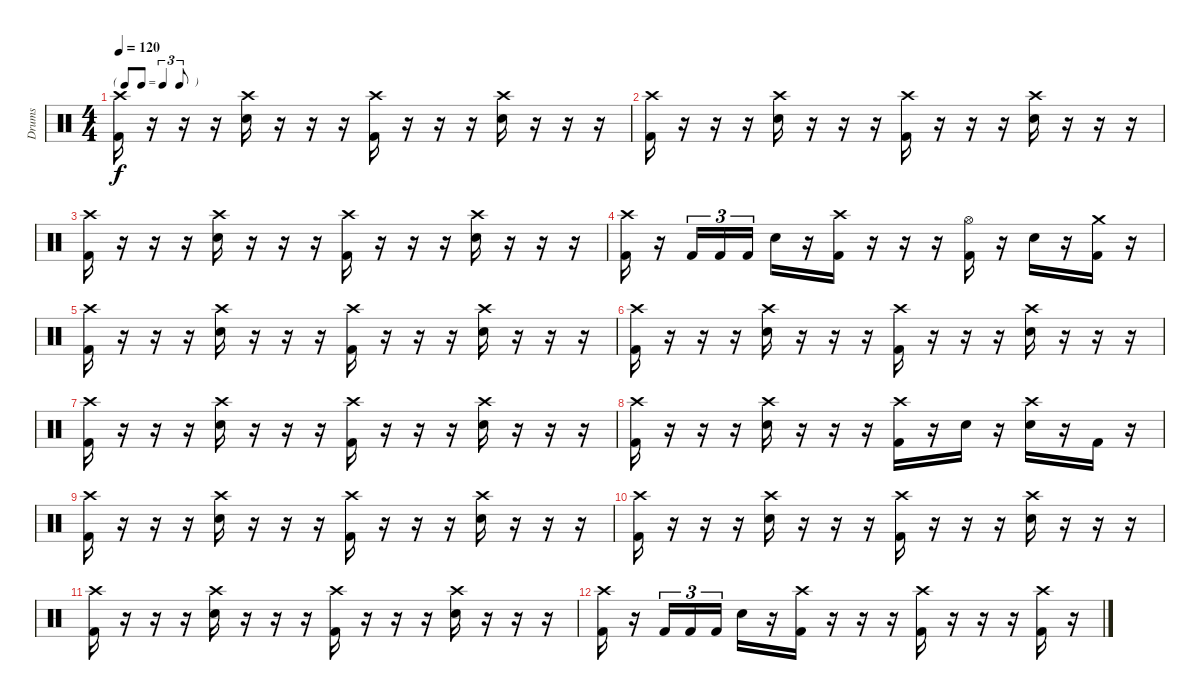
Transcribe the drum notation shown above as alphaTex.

\track ("Drums" "Drums") {instrument percussion}
\staff {score}
\articulation defaults
\ts (4 4)
\tf triplet8th
\tempo 120
\clef neutral
\ks c
("Crash high (hit)" "Kick (hit) 2").16{dy f} r.16 r.16 r.16 ("Crash high (hit)" "Electric Snare (hit)").16 r.16 r.16 r.16 ("Crash high (hit)" "Kick (hit) 2").16 r.16 r.16 r.16 ("Crash high (hit)" "Electric Snare (hit)").16 r.16 r.16 r.16 |
("Crash high (hit)" "Kick (hit) 2").16 r.16 r.16 r.16 ("Crash high (hit)" "Electric Snare (hit)").16 r.16 r.16 r.16 ("Crash high (hit)" "Kick (hit) 2").16 r.16 r.16 r.16 ("Crash high (hit)" "Electric Snare (hit)").16 r.16 r.16 r.16 |
("Crash high (hit)" "Kick (hit) 2").16 r.16 r.16 r.16 ("Crash high (hit)" "Electric Snare (hit)").16 r.16 r.16 r.16 ("Crash high (hit)" "Kick (hit) 2").16 r.16 r.16 r.16 ("Crash high (hit)" "Electric Snare (hit)").16 r.16 r.16 r.16 |
("Crash high (hit)" "Kick (hit) 2").16 r.16 "Kick (hit) 2".16{tu (3 2)} "Kick (hit) 2".16{tu (3 2)} "Kick (hit) 2".16{tu (3 2)} "Electric Snare (hit)".16 r.16 ("Crash high (hit)" "Kick (hit) 2").16 r.16 r.16 r.16 ("Hi-Hat (open)" "Kick (hit) 2").16 r.16 "Electric Snare (hit)".16 r.16 ("Crash medium (hit)" "Kick (hit) 2").16 r.16 |
("Crash high (hit)" "Kick (hit) 2").16 r.16 r.16 r.16 ("Crash high (hit)" "Electric Snare (hit)").16 r.16 r.16 r.16 ("Crash high (hit)" "Kick (hit) 2").16 r.16 r.16 r.16 ("Crash high (hit)" "Electric Snare (hit)").16 r.16 r.16 r.16 |
("Crash high (hit)" "Kick (hit) 2").16 r.16 r.16 r.16 ("Crash high (hit)" "Electric Snare (hit)").16 r.16 r.16 r.16 ("Crash high (hit)" "Kick (hit) 2").16 r.16 r.16 r.16 ("Crash high (hit)" "Electric Snare (hit)").16 r.16 r.16 r.16 |
("Crash high (hit)" "Kick (hit) 2").16 r.16 r.16 r.16 ("Crash high (hit)" "Electric Snare (hit)").16 r.16 r.16 r.16 ("Crash high (hit)" "Kick (hit) 2").16 r.16 r.16 r.16 ("Crash high (hit)" "Electric Snare (hit)").16 r.16 r.16 r.16 |
("Crash high (hit)" "Kick (hit) 2").16 r.16 r.16 r.16 ("Crash high (hit)" "Electric Snare (hit)").16 r.16 r.16 r.16 ("Crash high (hit)" "Kick (hit) 2").16 r.16 "Electric Snare (hit)".16 r.16 ("Crash high (hit)" "Electric Snare (hit)").16 r.16 "Kick (hit) 2".16 r.16 |
("Crash high (hit)" "Kick (hit) 2").16 r.16 r.16 r.16 ("Crash high (hit)" "Electric Snare (hit)").16 r.16 r.16 r.16 ("Crash high (hit)" "Kick (hit) 2").16 r.16 r.16 r.16 ("Crash high (hit)" "Electric Snare (hit)").16 r.16 r.16 r.16 |
("Crash high (hit)" "Kick (hit) 2").16 r.16 r.16 r.16 ("Crash high (hit)" "Electric Snare (hit)").16 r.16 r.16 r.16 ("Crash high (hit)" "Kick (hit) 2").16 r.16 r.16 r.16 ("Crash high (hit)" "Electric Snare (hit)").16 r.16 r.16 r.16 |
("Crash high (hit)" "Kick (hit) 2").16 r.16 r.16 r.16 ("Crash high (hit)" "Electric Snare (hit)").16 r.16 r.16 r.16 ("Crash high (hit)" "Kick (hit) 2").16 r.16 r.16 r.16 ("Crash high (hit)" "Electric Snare (hit)").16 r.16 r.16 r.16 |
("Crash high (hit)" "Kick (hit) 2").16 r.16 "Kick (hit) 2".16{tu (3 2)} "Kick (hit) 2".16{tu (3 2)} "Kick (hit) 2".16{tu (3 2)} "Electric Snare (hit)".16 r.16 ("Crash high (hit)" "Kick (hit) 2").16 r.16 r.16 r.16 ("Crash high (hit)" "Kick (hit) 2").16 r.16 r.16 r.16 ("Crash high (hit)" "Kick (hit) 2").16 r.16
